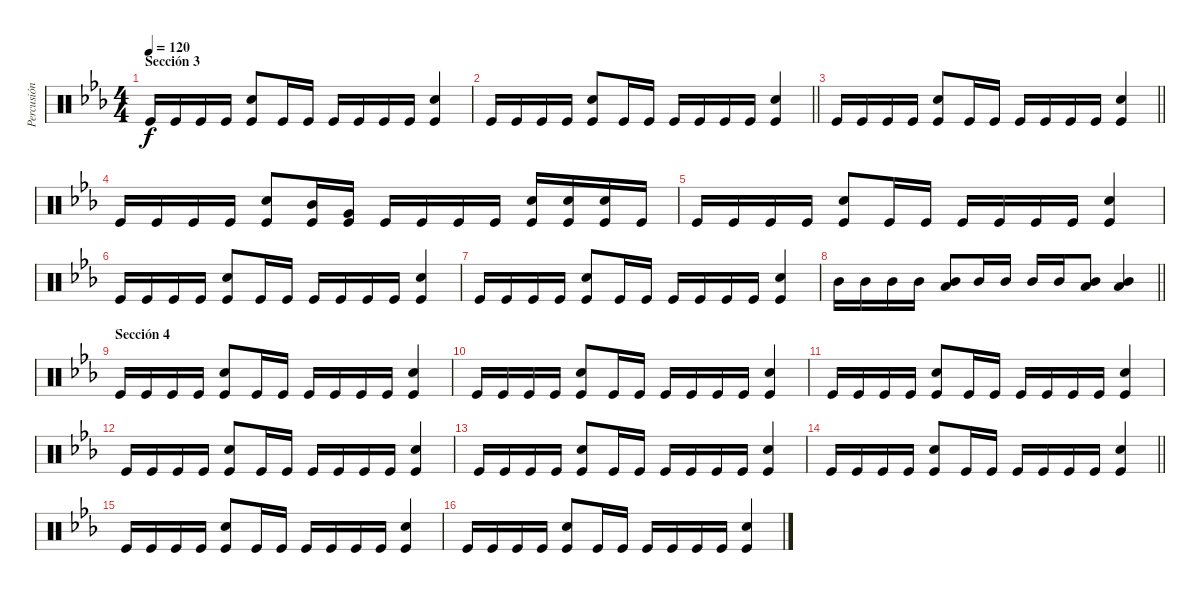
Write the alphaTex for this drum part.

\track ("Percusión" "Percusión") {instrument percussion}
\staff {score}
\articulation defaults
\ts (4 4)
\section ("" "Sección 3")
\tempo 120
\clef neutral
\ks eb "Kick (hit)".16{dy f} "Kick (hit)".16 "Kick (hit)".16 "Kick (hit)".16
("Snare (hit) 2" "Kick (hit)").8 "Kick (hit)".16 "Kick (hit)".16 "Kick (hit)".16 "Kick (hit)".16 "Kick (hit)".16 "Kick (hit)".16 ("Snare (hit) 2" "Kick (hit)").4 |
\barLineRight lightlight "Kick (hit)".16 "Kick (hit)".16 "Kick (hit)".16 "Kick (hit)".16
("Snare (hit) 2" "Kick (hit)").8 "Kick (hit)".16 "Kick (hit)".16 "Kick (hit)".16 "Kick (hit)".16 "Kick (hit)".16 "Kick (hit)".16 ("Snare (hit) 2" "Kick (hit)").4 |
\barLineRight lightlight "Kick (hit)".16 "Kick (hit)".16 "Kick (hit)".16 "Kick (hit)".16
("Snare (hit) 2" "Kick (hit)").8 "Kick (hit)".16 "Kick (hit)".16 "Kick (hit)".16 "Kick (hit)".16 "Kick (hit)".16 "Kick (hit)".16 ("Snare (hit) 2" "Kick (hit)").4 |
"Kick (hit)".16 "Kick (hit)".16 "Kick (hit)".16 "Kick (hit)".16 ("Snare (hit) 2" "Kick (hit)").8 ("Mid Tom (hit)" "Kick (hit)").16 ("Very Low Tom (hit)" "Kick (hit)").16 "Kick (hit)".16 "Kick (hit)".16 "Kick (hit)".16 "Kick (hit)".16 ("Snare (hit) 2" "Kick (hit)").16 ("Snare (hit) 2" "Kick (hit)").16 ("Snare (hit) 2" "Kick (hit)").16 "Kick (hit)".16 |
"Kick (hit)".16 "Kick (hit)".16 "Kick (hit)".16 "Kick (hit)".16 ("Snare (hit) 2" "Kick (hit)").8 "Kick (hit)".16 "Kick (hit)".16 "Kick (hit)".16 "Kick (hit)".16 "Kick (hit)".16 "Kick (hit)".16 ("Snare (hit) 2" "Kick (hit)").4 |
"Kick (hit)".16 "Kick (hit)".16 "Kick (hit)".16 "Kick (hit)".16 ("Snare (hit) 2" "Kick (hit)").8 "Kick (hit)".16 "Kick (hit)".16 "Kick (hit)".16 "Kick (hit)".16 "Kick (hit)".16 "Kick (hit)".16 ("Snare (hit) 2" "Kick (hit)").4 |
"Kick (hit)".16 "Kick (hit)".16 "Kick (hit)".16 "Kick (hit)".16 ("Snare (hit) 2" "Kick (hit)").8 "Kick (hit)".16 "Kick (hit)".16 "Kick (hit)".16 "Kick (hit)".16 "Kick (hit)".16 "Kick (hit)".16 ("Snare (hit) 2" "Kick (hit)").4 |
\barLineRight lightlight "Mid Tom (hit)".16 "Mid Tom (hit)".16 "Mid Tom (hit)".16 "Mid Tom (hit)".16
("Low Tom (hit)" "Mid Tom (hit)").8 "Mid Tom (hit)".16 "Mid Tom (hit)".16 "Mid Tom (hit)".16 "Mid Tom (hit)".16 ("Low Tom (hit)" "Mid Tom (hit)").8 ("Low Tom (hit)" "Mid Tom (hit)").4 |
\section ("" "Sección 4")
"Kick (hit)".16 "Kick (hit)".16 "Kick (hit)".16 "Kick (hit)".16 ("Snare (hit) 2" "Kick (hit)").8 "Kick (hit)".16 "Kick (hit)".16 "Kick (hit)".16 "Kick (hit)".16 "Kick (hit)".16 "Kick (hit)".16 ("Snare (hit) 2" "Kick (hit)").4 |
"Kick (hit)".16 "Kick (hit)".16 "Kick (hit)".16 "Kick (hit)".16 ("Snare (hit) 2" "Kick (hit)").8 "Kick (hit)".16 "Kick (hit)".16 "Kick (hit)".16 "Kick (hit)".16 "Kick (hit)".16 "Kick (hit)".16 ("Snare (hit) 2" "Kick (hit)").4 |
"Kick (hit)".16 "Kick (hit)".16 "Kick (hit)".16 "Kick (hit)".16 ("Snare (hit) 2" "Kick (hit)").8 "Kick (hit)".16 "Kick (hit)".16 "Kick (hit)".16 "Kick (hit)".16 "Kick (hit)".16 "Kick (hit)".16 ("Snare (hit) 2" "Kick (hit)").4 |
"Kick (hit)".16 "Kick (hit)".16 "Kick (hit)".16 "Kick (hit)".16 ("Snare (hit) 2" "Kick (hit)").8 "Kick (hit)".16 "Kick (hit)".16 "Kick (hit)".16 "Kick (hit)".16 "Kick (hit)".16 "Kick (hit)".16 ("Snare (hit) 2" "Kick (hit)").4 |
"Kick (hit)".16 "Kick (hit)".16 "Kick (hit)".16 "Kick (hit)".16 ("Snare (hit) 2" "Kick (hit)").8 "Kick (hit)".16 "Kick (hit)".16 "Kick (hit)".16 "Kick (hit)".16 "Kick (hit)".16 "Kick (hit)".16 ("Snare (hit) 2" "Kick (hit)").4 |
\barLineRight lightlight "Kick (hit)".16 "Kick (hit)".16 "Kick (hit)".16 "Kick (hit)".16
("Snare (hit) 2" "Kick (hit)").8 "Kick (hit)".16 "Kick (hit)".16 "Kick (hit)".16 "Kick (hit)".16 "Kick (hit)".16 "Kick (hit)".16 ("Snare (hit) 2" "Kick (hit)").4 |
"Kick (hit)".16 "Kick (hit)".16 "Kick (hit)".16 "Kick (hit)".16 ("Snare (hit) 2" "Kick (hit)").8 "Kick (hit)".16 "Kick (hit)".16 "Kick (hit)".16 "Kick (hit)".16 "Kick (hit)".16 "Kick (hit)".16 ("Snare (hit) 2" "Kick (hit)").4 |
"Kick (hit)".16 "Kick (hit)".16 "Kick (hit)".16 "Kick (hit)".16 ("Snare (hit) 2" "Kick (hit)").8 "Kick (hit)".16 "Kick (hit)".16 "Kick (hit)".16 "Kick (hit)".16 "Kick (hit)".16 "Kick (hit)".16 ("Snare (hit) 2" "Kick (hit)").4
